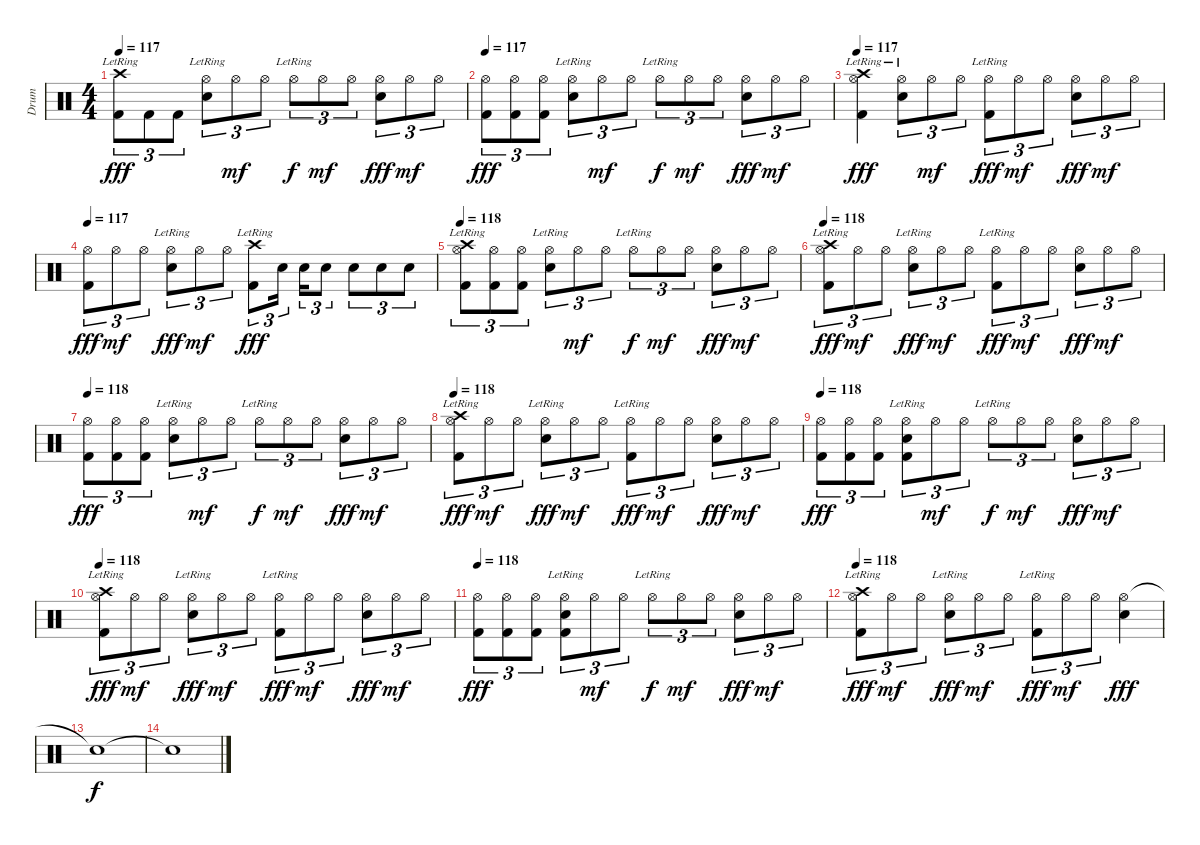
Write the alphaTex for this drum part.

\track ("Drum" "Drum") {instrument percussion}
\staff {score}
\articulation defaults
\ts (4 4)
\tempo 117
\clef neutral
\ks c
("Crash high (hit)"{lr} "Kick (hit) 2").8{tu (3 2) dy fff} "Kick (hit) 2".8{tu (3 2)} "Kick (hit) 2".8{tu (3 2)} ("Hi-Hat (open)"{lr} "Electric Snare (hit)").8{tu (3 2)} "Hi-Hat (open)".8{tu (3 2) dy mf} "Hi-Hat (open)".8{tu (3 2)} "Hi-Hat (open)"{lr}.8{tu (3 2) dy f} "Hi-Hat (open)".8{tu (3 2) dy mf} "Hi-Hat (open)".8{tu (3 2)} ("Hi-Hat (open)" "Electric Snare (hit)").8{tu (3 2) dy fff} "Hi-Hat (open)".8{tu (3 2) dy mf} "Hi-Hat (open)".8{tu (3 2)} |
\tempo 117
("Hi-Hat (open)" "Kick (hit) 2").8{tu (3 2) dy fff} ("Hi-Hat (open)" "Kick (hit) 2").8{tu (3 2)} ("Hi-Hat (open)" "Kick (hit) 2").8{tu (3 2)} ("Hi-Hat (open)"{lr} "Electric Snare (hit)").8{tu (3 2)} "Hi-Hat (open)".8{tu (3 2) dy mf} "Hi-Hat (open)".8{tu (3 2)} "Hi-Hat (open)"{lr}.8{tu (3 2) dy f} "Hi-Hat (open)".8{tu (3 2) dy mf} "Hi-Hat (open)".8{tu (3 2)} ("Hi-Hat (open)" "Electric Snare (hit)").8{tu (3 2) dy fff} "Hi-Hat (open)".8{tu (3 2) dy mf} "Hi-Hat (open)".8{tu (3 2)} |
\tempo 117
("Crash high (hit)"{lr} "Hi-Hat (open)" "Kick (hit) 2").4{dy fff} ("Hi-Hat (open)"{lr} "Electric Snare (hit)").8{tu (3 2)} "Hi-Hat (open)".8{tu (3 2) dy mf} "Hi-Hat (open)".8{tu (3 2)} ("Hi-Hat (open)"{lr} "Kick (hit) 2").8{tu (3 2) dy fff} "Hi-Hat (open)".8{tu (3 2) dy mf} "Hi-Hat (open)".8{tu (3 2)} ("Hi-Hat (open)" "Electric Snare (hit)").8{tu (3 2) dy fff} "Hi-Hat (open)".8{tu (3 2) dy mf} "Hi-Hat (open)".8{tu (3 2)} |
\tempo 117
("Hi-Hat (open)" "Kick (hit) 2").8{tu (3 2) dy fff} "Hi-Hat (open)".8{tu (3 2) dy mf} "Hi-Hat (open)".8{tu (3 2)} ("Hi-Hat (open)"{lr} "Electric Snare (hit)").8{tu (3 2) dy fff} "Hi-Hat (open)".8{tu (3 2) dy mf} "Hi-Hat (open)".8{tu (3 2)} ("Crash high (hit)"{lr} "Kick (hit) 2").8{tu (3 2) dy fff} "Electric Snare (hit)".16{tu (3 2)} "Electric Snare (hit)".16{tu (3 2)} "Electric Snare (hit)".8{tu (3 2)} "Electric Snare (hit)".8{tu (3 2)} "Electric Snare (hit)".8{tu (3 2)} "Electric Snare (hit)".8{tu (3 2)} |
\tempo 118
("Crash high (hit)"{lr} "Hi-Hat (open)" "Kick (hit) 2").8{tu (3 2)} ("Hi-Hat (open)" "Kick (hit) 2").8{tu (3 2)} ("Hi-Hat (open)" "Kick (hit) 2").8{tu (3 2)} ("Hi-Hat (open)"{lr} "Electric Snare (hit)").8{tu (3 2)} "Hi-Hat (open)".8{tu (3 2) dy mf} "Hi-Hat (open)".8{tu (3 2)} "Hi-Hat (open)"{lr}.8{tu (3 2) dy f} "Hi-Hat (open)".8{tu (3 2) dy mf} "Hi-Hat (open)".8{tu (3 2)} ("Hi-Hat (open)" "Electric Snare (hit)").8{tu (3 2) dy fff} "Hi-Hat (open)".8{tu (3 2) dy mf} "Hi-Hat (open)".8{tu (3 2)} |
\tempo 118
("Crash high (hit)" "Hi-Hat (open)"{lr} "Kick (hit) 2").8{tu (3 2) dy fff} "Hi-Hat (open)".8{tu (3 2) dy mf} "Hi-Hat (open)".8{tu (3 2)} ("Hi-Hat (open)"{lr} "Electric Snare (hit)").8{tu (3 2) dy fff} "Hi-Hat (open)".8{tu (3 2) dy mf} "Hi-Hat (open)".8{tu (3 2)} ("Hi-Hat (open)"{lr} "Kick (hit) 2").8{tu (3 2) dy fff} "Hi-Hat (open)".8{tu (3 2) dy mf} "Hi-Hat (open)".8{tu (3 2)} ("Hi-Hat (open)" "Electric Snare (hit)").8{tu (3 2) dy fff} "Hi-Hat (open)".8{tu (3 2) dy mf} "Hi-Hat (open)".8{tu (3 2)} |
\tempo 118
("Hi-Hat (open)" "Kick (hit) 2").8{tu (3 2) dy fff} ("Hi-Hat (open)" "Kick (hit) 2").8{tu (3 2)} ("Hi-Hat (open)" "Kick (hit) 2").8{tu (3 2)} ("Hi-Hat (open)"{lr} "Electric Snare (hit)").8{tu (3 2)} "Hi-Hat (open)".8{tu (3 2) dy mf} "Hi-Hat (open)".8{tu (3 2)} "Hi-Hat (open)"{lr}.8{tu (3 2) dy f} "Hi-Hat (open)".8{tu (3 2) dy mf} "Hi-Hat (open)".8{tu (3 2)} ("Hi-Hat (open)" "Electric Snare (hit)").8{tu (3 2) dy fff} "Hi-Hat (open)".8{tu (3 2) dy mf} "Hi-Hat (open)".8{tu (3 2)} |
\tempo 118
("Crash high (hit)" "Hi-Hat (open)"{lr} "Kick (hit) 2").8{tu (3 2) dy fff} "Hi-Hat (open)".8{tu (3 2) dy mf} "Hi-Hat (open)".8{tu (3 2)} ("Hi-Hat (open)"{lr} "Electric Snare (hit)").8{tu (3 2) dy fff} "Hi-Hat (open)".8{tu (3 2) dy mf} "Hi-Hat (open)".8{tu (3 2)} ("Hi-Hat (open)"{lr} "Kick (hit) 2").8{tu (3 2) dy fff} "Hi-Hat (open)".8{tu (3 2) dy mf} "Hi-Hat (open)".8{tu (3 2)} ("Hi-Hat (open)" "Electric Snare (hit)").8{tu (3 2) dy fff} "Hi-Hat (open)".8{tu (3 2) dy mf} "Hi-Hat (open)".8{tu (3 2)} |
\tempo 118
("Hi-Hat (open)" "Kick (hit) 2").8{tu (3 2) dy fff} ("Hi-Hat (open)" "Kick (hit) 2").8{tu (3 2)} ("Hi-Hat (open)" "Kick (hit) 2").8{tu (3 2)} ("Hi-Hat (open)"{lr} "Electric Snare (hit)" "Kick (hit) 2").8{tu (3 2)} "Hi-Hat (open)".8{tu (3 2) dy mf} "Hi-Hat (open)".8{tu (3 2)} "Hi-Hat (open)"{lr}.8{tu (3 2) dy f} "Hi-Hat (open)".8{tu (3 2) dy mf} "Hi-Hat (open)".8{tu (3 2)} ("Hi-Hat (open)" "Electric Snare (hit)").8{tu (3 2) dy fff} "Hi-Hat (open)".8{tu (3 2) dy mf} "Hi-Hat (open)".8{tu (3 2)} |
\tempo 118
("Crash high (hit)" "Hi-Hat (open)"{lr} "Kick (hit) 2").8{tu (3 2) dy fff} "Hi-Hat (open)".8{tu (3 2) dy mf} "Hi-Hat (open)".8{tu (3 2)} ("Hi-Hat (open)"{lr} "Electric Snare (hit)").8{tu (3 2) dy fff} "Hi-Hat (open)".8{tu (3 2) dy mf} "Hi-Hat (open)".8{tu (3 2)} ("Hi-Hat (open)"{lr} "Kick (hit) 2").8{tu (3 2) dy fff} "Hi-Hat (open)".8{tu (3 2) dy mf} "Hi-Hat (open)".8{tu (3 2)} ("Hi-Hat (open)" "Electric Snare (hit)").8{tu (3 2) dy fff} "Hi-Hat (open)".8{tu (3 2) dy mf} "Hi-Hat (open)".8{tu (3 2)} |
\tempo 118
("Hi-Hat (open)" "Kick (hit) 2").8{tu (3 2) dy fff} ("Hi-Hat (open)" "Kick (hit) 2").8{tu (3 2)} ("Hi-Hat (open)" "Kick (hit) 2").8{tu (3 2)} ("Hi-Hat (open)"{lr} "Electric Snare (hit)" "Kick (hit) 2").8{tu (3 2)} "Hi-Hat (open)".8{tu (3 2) dy mf} "Hi-Hat (open)".8{tu (3 2)} "Hi-Hat (open)"{lr}.8{tu (3 2) dy f} "Hi-Hat (open)".8{tu (3 2) dy mf} "Hi-Hat (open)".8{tu (3 2)} ("Hi-Hat (open)" "Electric Snare (hit)").8{tu (3 2) dy fff} "Hi-Hat (open)".8{tu (3 2) dy mf} "Hi-Hat (open)".8{tu (3 2)} |
\tempo 118
("Crash high (hit)" "Hi-Hat (open)"{lr} "Kick (hit) 2").8{tu (3 2) dy fff} "Hi-Hat (open)".8{tu (3 2) dy mf} "Hi-Hat (open)".8{tu (3 2)} ("Hi-Hat (open)"{lr} "Electric Snare (hit)").8{tu (3 2) dy fff} "Hi-Hat (open)".8{tu (3 2) dy mf} "Hi-Hat (open)".8{tu (3 2)} ("Hi-Hat (open)"{lr} "Kick (hit) 2").8{tu (3 2) dy fff} "Hi-Hat (open)".8{tu (3 2) dy mf} "Hi-Hat (open)".8{tu (3 2)} ("Hi-Hat (open)" "Electric Snare (hit)").4{dy fff} |
"Snare (hit)"{t}.1{dy f} |
"Snare (hit)"{t}.1
